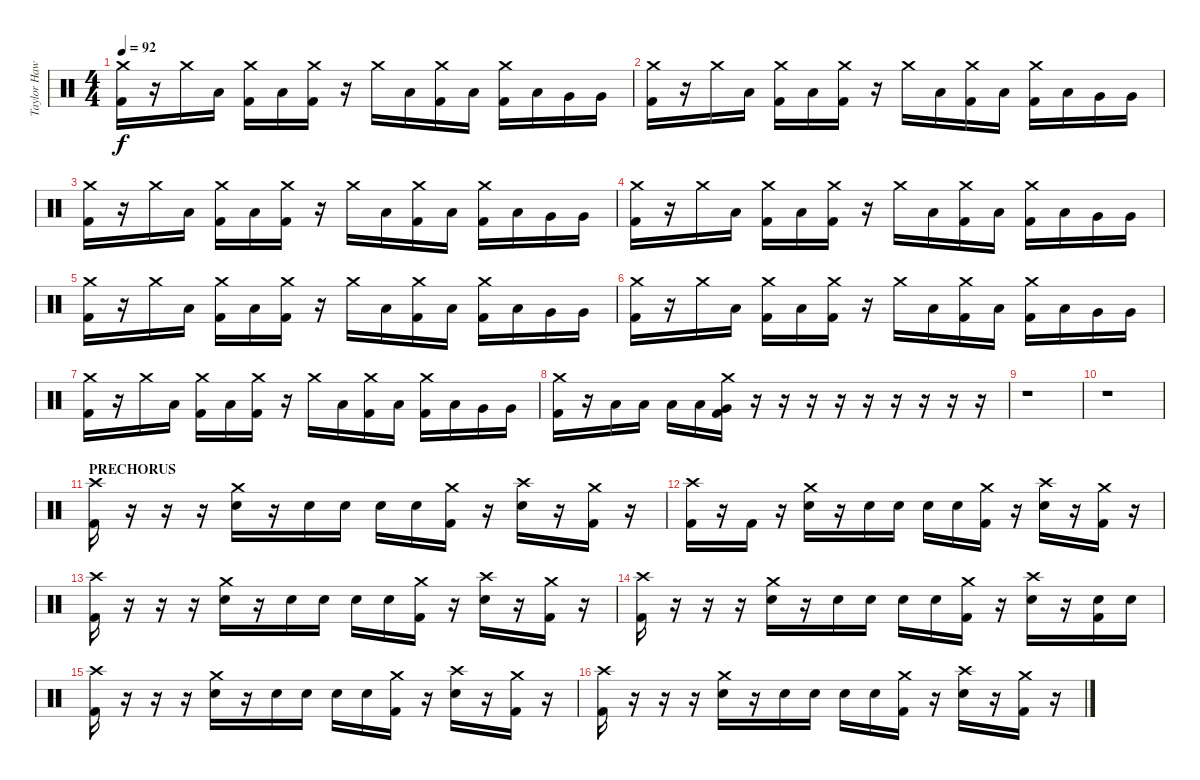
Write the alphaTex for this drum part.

\track ("Taylor Hawkins (Drums)" "Taylor Haw") {instrument percussion}
\staff {score}
\articulation defaults
\ts (4 4)
\tempo 92
\clef neutral
\ks c
("Crash medium (hit)" "Kick (hit) 2").16{dy f} r.16 "Crash medium (hit)".16 "Low Tom (hit)".16 ("Crash medium (hit)" "Kick (hit) 2").16 "Low Tom (hit)".16 ("Crash medium (hit)" "Kick (hit) 2").16 r.16 "Crash medium (hit)".16 "Low Tom (hit)".16 ("Crash medium (hit)" "Kick (hit) 2").16 "Low Tom (hit)".16 ("Crash medium (hit)" "Kick (hit) 2").16 "Low Tom (hit)".16 "Very Low Tom (hit)".16 "Very Low Tom (hit)".16 |
("Crash medium (hit)" "Kick (hit) 2").16 r.16 "Crash medium (hit)".16 "Low Tom (hit)".16 ("Crash medium (hit)" "Kick (hit) 2").16 "Low Tom (hit)".16 ("Crash medium (hit)" "Kick (hit) 2").16 r.16 "Crash medium (hit)".16 "Low Tom (hit)".16 ("Crash medium (hit)" "Kick (hit) 2").16 "Low Tom (hit)".16 ("Crash medium (hit)" "Kick (hit) 2").16 "Low Tom (hit)".16 "Very Low Tom (hit)".16 "Very Low Tom (hit)".16 |
("Crash medium (hit)" "Kick (hit) 2").16 r.16 "Crash medium (hit)".16 "Low Tom (hit)".16 ("Crash medium (hit)" "Kick (hit) 2").16 "Low Tom (hit)".16 ("Crash medium (hit)" "Kick (hit) 2").16 r.16 "Crash medium (hit)".16 "Low Tom (hit)".16 ("Crash medium (hit)" "Kick (hit) 2").16 "Low Tom (hit)".16 ("Crash medium (hit)" "Kick (hit) 2").16 "Low Tom (hit)".16 "Very Low Tom (hit)".16 "Very Low Tom (hit)".16 |
("Crash medium (hit)" "Kick (hit) 2").16 r.16 "Crash medium (hit)".16 "Low Tom (hit)".16 ("Crash medium (hit)" "Kick (hit) 2").16 "Low Tom (hit)".16 ("Crash medium (hit)" "Kick (hit) 2").16 r.16 "Crash medium (hit)".16 "Low Tom (hit)".16 ("Crash medium (hit)" "Kick (hit) 2").16 "Low Tom (hit)".16 ("Crash medium (hit)" "Kick (hit) 2").16 "Low Tom (hit)".16 "Very Low Tom (hit)".16 "Very Low Tom (hit)".16 |
("Crash medium (hit)" "Kick (hit) 2").16 r.16 "Crash medium (hit)".16 "Low Tom (hit)".16 ("Crash medium (hit)" "Kick (hit) 2").16 "Low Tom (hit)".16 ("Crash medium (hit)" "Kick (hit) 2").16 r.16 "Crash medium (hit)".16 "Low Tom (hit)".16 ("Crash medium (hit)" "Kick (hit) 2").16 "Low Tom (hit)".16 ("Crash medium (hit)" "Kick (hit) 2").16 "Low Tom (hit)".16 "Very Low Tom (hit)".16 "Very Low Tom (hit)".16 |
("Crash medium (hit)" "Kick (hit) 2").16 r.16 "Crash medium (hit)".16 "Low Tom (hit)".16 ("Crash medium (hit)" "Kick (hit) 2").16 "Low Tom (hit)".16 ("Crash medium (hit)" "Kick (hit) 2").16 r.16 "Crash medium (hit)".16 "Low Tom (hit)".16 ("Crash medium (hit)" "Kick (hit) 2").16 "Low Tom (hit)".16 ("Crash medium (hit)" "Kick (hit) 2").16 "Low Tom (hit)".16 "Very Low Tom (hit)".16 "Very Low Tom (hit)".16 |
("Crash medium (hit)" "Kick (hit) 2").16 r.16 "Crash medium (hit)".16 "Low Tom (hit)".16 ("Crash medium (hit)" "Kick (hit) 2").16 "Low Tom (hit)".16 ("Crash medium (hit)" "Kick (hit) 2").16 r.16 "Crash medium (hit)".16 "Low Tom (hit)".16 ("Crash medium (hit)" "Kick (hit) 2").16 "Low Tom (hit)".16 ("Crash medium (hit)" "Kick (hit) 2").16 "Low Tom (hit)".16 "Very Low Tom (hit)".16 "Very Low Tom (hit)".16 |
("Crash medium (hit)" "Kick (hit) 2").16 r.16 "Low Tom (hit)".16 "Low Tom (hit)".16 "Low Tom (hit)".16 "Low Tom (hit)".16 ("Crash medium (hit)" "Very Low Tom (hit)" "Kick (hit) 2").16 r.16 r.16 r.16 r.16 r.16 r.16 r.16 r.16 r.16 |
r.1 |
r.1 |
\section ("" "PRECHORUS")
("Crash high (hit)" "Kick (hit) 2").16 r.16 r.16 r.16 ("Crash medium (hit)" "Electric Snare (hit)").16 r.16 "Electric Snare (hit)".16 "Electric Snare (hit)".16 "Electric Snare (hit)".16 "Electric Snare (hit)".16 ("Crash medium (hit)" "Kick (hit) 2").16 r.16 ("Crash high (hit)" "Electric Snare (hit)").16 r.16 ("Crash medium (hit)" "Kick (hit) 2").16 r.16 |
("Crash high (hit)" "Kick (hit) 2").16 r.16 "Kick (hit) 2".16 r.16 ("Crash medium (hit)" "Electric Snare (hit)").16 r.16 "Electric Snare (hit)".16 "Electric Snare (hit)".16 "Electric Snare (hit)".16 "Electric Snare (hit)".16 ("Crash medium (hit)" "Kick (hit) 2").16 r.16 ("Crash high (hit)" "Electric Snare (hit)").16 r.16 ("Crash medium (hit)" "Kick (hit) 2").16 r.16 |
("Crash high (hit)" "Kick (hit) 2").16 r.16 r.16 r.16 ("Crash medium (hit)" "Electric Snare (hit)").16 r.16 "Electric Snare (hit)".16 "Electric Snare (hit)".16 "Electric Snare (hit)".16 "Electric Snare (hit)".16 ("Crash medium (hit)" "Kick (hit) 2").16 r.16 ("Crash high (hit)" "Electric Snare (hit)").16 r.16 ("Crash medium (hit)" "Kick (hit) 2").16 r.16 |
("Crash high (hit)" "Kick (hit) 2").16 r.16 r.16 r.16 ("Crash medium (hit)" "Electric Snare (hit)").16 r.16 "Electric Snare (hit)".16 "Electric Snare (hit)".16 "Electric Snare (hit)".16 "Electric Snare (hit)".16 ("Crash medium (hit)" "Kick (hit) 2").16 r.16 ("Crash high (hit)" "Electric Snare (hit)").16 r.16 ("Electric Snare (hit)" "Kick (hit) 2").16 "Electric Snare (hit)".16 |
("Crash high (hit)" "Kick (hit) 2").16 r.16 r.16 r.16 ("Crash medium (hit)" "Electric Snare (hit)").16 r.16 "Electric Snare (hit)".16 "Electric Snare (hit)".16 "Electric Snare (hit)".16 "Electric Snare (hit)".16 ("Crash medium (hit)" "Kick (hit) 2").16 r.16 ("Crash high (hit)" "Electric Snare (hit)").16 r.16 ("Crash medium (hit)" "Kick (hit) 2").16 r.16 |
("Crash high (hit)" "Kick (hit) 2").16 r.16 r.16 r.16 ("Crash medium (hit)" "Electric Snare (hit)").16 r.16 "Electric Snare (hit)".16 "Electric Snare (hit)".16 "Electric Snare (hit)".16 "Electric Snare (hit)".16 ("Crash medium (hit)" "Kick (hit) 2").16 r.16 ("Crash high (hit)" "Electric Snare (hit)").16 r.16 ("Crash medium (hit)" "Kick (hit) 2").16 r.16
